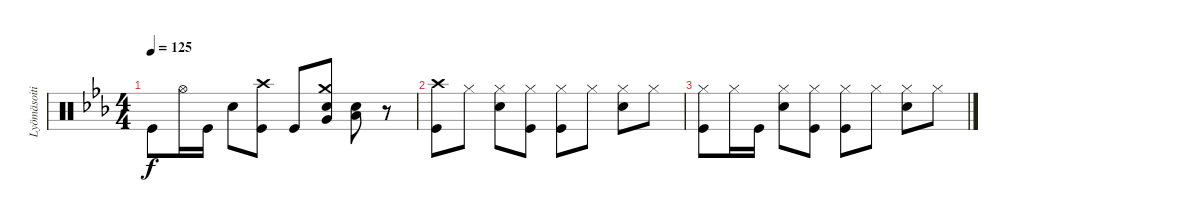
\track ("Lyömäsoitin" "Lyömäsoiti") {instrument percussion}
\staff {score}
\articulation defaults
\ts (4 4)
\tempo 125
\clef neutral
\ks cminor "Kick (hit)".8{dy f} "Hi-Hat (open)".16 "Kick (hit)".16 "Snare (hit) 2".8
("Crash high (hit)" "Kick (hit)").8 "Kick (hit)".8 ("Crash medium (hit)" "Very Low Tom (hit)" "Snare (hit) 2").8 ("Low Floor Tom (hit)" "Snare (hit) 2").8 r.8 |
("Crash high (hit)" "Kick (hit)").8 "Hi-Hat (closed)".8 ("Hi-Hat (closed)" "Snare (hit) 2").8 ("Hi-Hat (closed)" "Kick (hit)").8 ("Hi-Hat (closed)" "Kick (hit)").8 "Hi-Hat (closed)".8 ("Hi-Hat (closed)" "Snare (hit) 2").8 "Hi-Hat (closed)".8 |
("Hi-Hat (closed)" "Kick (hit)").8 "Hi-Hat (closed)".16 "Kick (hit)".16 ("Hi-Hat (closed)" "Snare (hit) 2").8 ("Hi-Hat (closed)" "Kick (hit)").8 ("Hi-Hat (closed)" "Kick (hit)").8 "Hi-Hat (closed)".8 ("Hi-Hat (closed)" "Snare (hit) 2").8 "Hi-Hat (closed)".8
